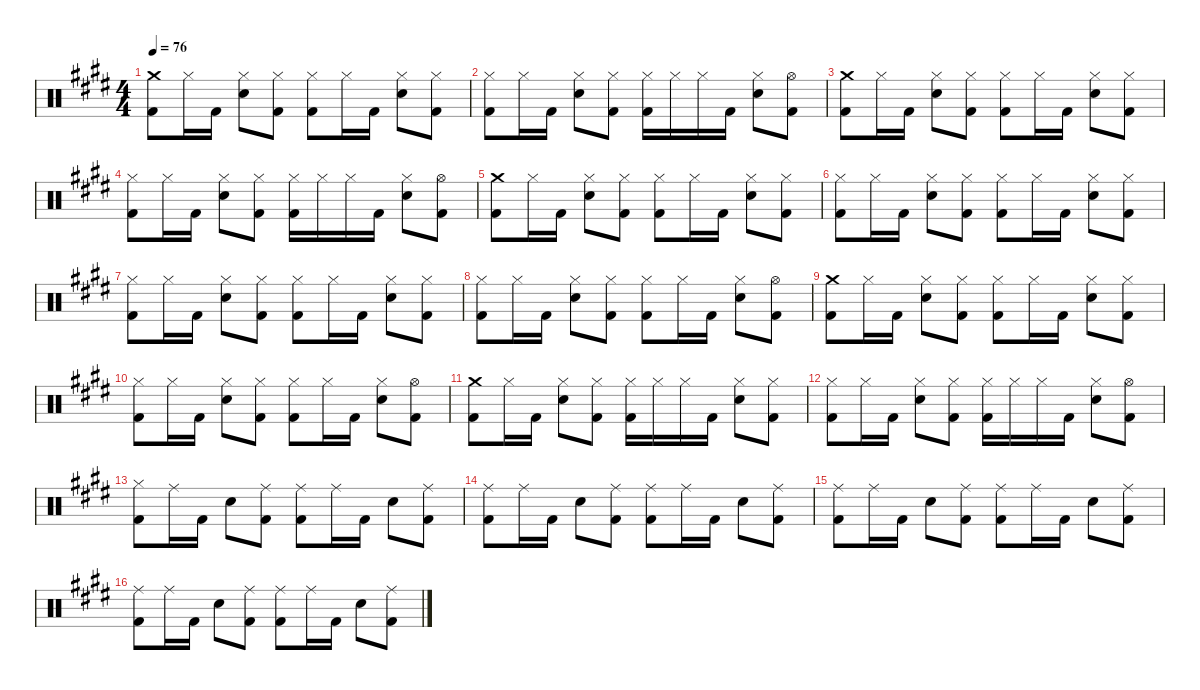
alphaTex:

\defaultSystemsLayout 4
\hideDynamics
\bracketExtendMode nobrackets
\singleTrackTrackNamePolicy hidden
\multiTrackTrackNamePolicy hidden
\firstSystemTrackNameMode fullname
\otherSystemsTrackNameOrientation horizontal
\track ("Drums" "drm.") {instrument percussion}
\staff {score}
\articulation defaults
\ts (4 4)
\tempo 76
\clef neutral
\ks e
("Crash medium (hit)"{acc forcenatural} "Kick (hit) 2"{acc forcenatural}).8{dy f beam Down} "Hi-Hat (closed)"{acc forcenatural}.16{beam Down} "Kick (hit) 2"{acc forcenatural}.16{beam Down} ("Hi-Hat (closed)"{acc forcenatural} "Snare (hit) 2"{acc forcenatural}).8{dy mf beam Down} ("Hi-Hat (closed)"{acc forcenatural} "Kick (hit) 2"{acc forcenatural}).8{dy f beam Down} ("Hi-Hat (closed)"{acc forcenatural} "Kick (hit) 2"{acc forcenatural}).8{beam Down} "Hi-Hat (closed)"{acc forcenatural}.16{beam Down} "Kick (hit) 2"{acc forcenatural}.16{beam Down} ("Hi-Hat (closed)"{acc forcenatural} "Snare (hit) 2"{acc forcenatural}).8{dy mf beam Down} ("Hi-Hat (closed)"{acc forcenatural} "Kick (hit) 2"{acc forcenatural}).8{dy f beam Down} |
("Hi-Hat (closed)"{acc forcenatural} "Kick (hit) 2"{acc forcenatural}).8{beam Down} "Hi-Hat (closed)"{acc forcenatural}.16{beam Down} "Kick (hit) 2"{acc forcenatural}.16{beam Down} ("Hi-Hat (closed)"{acc forcenatural} "Snare (hit) 2"{acc forcenatural}).8{dy mf beam Down} ("Hi-Hat (closed)"{acc forcenatural} "Kick (hit) 2"{acc forcenatural}).8{dy f beam Down} ("Hi-Hat (closed)"{acc forcenatural} "Kick (hit) 2"{acc forcenatural}).16{beam Down} "Hi-Hat (closed)"{acc forcenatural}.16{dy mf beam Down} "Hi-Hat (closed)"{acc forcenatural}.16{dy f beam Down} "Kick (hit) 2"{acc forcenatural}.16{beam Down} ("Hi-Hat (closed)"{acc forcenatural} "Snare (hit) 2"{acc forcenatural}).8{dy mf beam Down} ("Hi-Hat (open)"{acc forcenatural} "Kick (hit) 2"{acc forcenatural}).8{dy f beam Down} |
("Crash medium (hit)"{acc forcenatural} "Kick (hit) 2"{acc forcenatural}).8{beam Down} "Hi-Hat (closed)"{acc forcenatural}.16{beam Down} "Kick (hit) 2"{acc forcenatural}.16{beam Down} ("Hi-Hat (closed)"{acc forcenatural} "Snare (hit) 2"{acc forcenatural}).8{dy mf beam Down} ("Hi-Hat (closed)"{acc forcenatural} "Kick (hit) 2"{acc forcenatural}).8{dy f beam Down} ("Hi-Hat (closed)"{acc forcenatural} "Kick (hit) 2"{acc forcenatural}).8{beam Down} "Hi-Hat (closed)"{acc forcenatural}.16{beam Down} "Kick (hit) 2"{acc forcenatural}.16{beam Down} ("Hi-Hat (closed)"{acc forcenatural} "Snare (hit) 2"{acc forcenatural}).8{dy mf beam Down} ("Hi-Hat (closed)"{acc forcenatural} "Kick (hit) 2"{acc forcenatural}).8{dy f beam Down} |
("Hi-Hat (closed)"{acc forcenatural} "Kick (hit) 2"{acc forcenatural}).8{beam Down} "Hi-Hat (closed)"{acc forcenatural}.16{beam Down} "Kick (hit) 2"{acc forcenatural}.16{beam Down} ("Hi-Hat (closed)"{acc forcenatural} "Snare (hit) 2"{acc forcenatural}).8{dy mf beam Down} ("Hi-Hat (closed)"{acc forcenatural} "Kick (hit) 2"{acc forcenatural}).8{dy f beam Down} ("Hi-Hat (closed)"{acc forcenatural} "Kick (hit) 2"{acc forcenatural}).16{beam Down} "Hi-Hat (closed)"{acc forcenatural}.16{dy mf beam Down} "Hi-Hat (closed)"{acc forcenatural}.16{dy f beam Down} "Kick (hit) 2"{acc forcenatural}.16{beam Down} ("Hi-Hat (closed)"{acc forcenatural} "Snare (hit) 2"{acc forcenatural}).8{dy mf beam Down} ("Hi-Hat (open)"{acc forcenatural} "Kick (hit) 2"{acc forcenatural}).8{dy f beam Down} |
("Crash medium (hit)"{acc forcenatural} "Kick (hit) 2"{acc forcenatural}).8{beam Down} "Hi-Hat (closed)"{acc forcenatural}.16{beam Down} "Kick (hit) 2"{acc forcenatural}.16{beam Down} ("Hi-Hat (closed)"{acc forcenatural} "Snare (hit) 2"{acc forcenatural}).8{dy mf beam Down} ("Hi-Hat (closed)"{acc forcenatural} "Kick (hit) 2"{acc forcenatural}).8{dy f beam Down} ("Hi-Hat (closed)"{acc forcenatural} "Kick (hit) 2"{acc forcenatural}).8{beam Down} "Hi-Hat (closed)"{acc forcenatural}.16{beam Down} "Kick (hit) 2"{acc forcenatural}.16{beam Down} ("Hi-Hat (closed)"{acc forcenatural} "Snare (hit) 2"{acc forcenatural}).8{dy mf beam Down} ("Hi-Hat (closed)"{acc forcenatural} "Kick (hit) 2"{acc forcenatural}).8{dy f beam Down} |
("Hi-Hat (closed)"{acc forcenatural} "Kick (hit) 2"{acc forcenatural}).8{beam Down} "Hi-Hat (closed)"{acc forcenatural}.16{beam Down} "Kick (hit) 2"{acc forcenatural}.16{beam Down} ("Hi-Hat (closed)"{acc forcenatural} "Snare (hit) 2"{acc forcenatural}).8{dy mf beam Down} ("Hi-Hat (closed)"{acc forcenatural} "Kick (hit) 2"{acc forcenatural}).8{dy f beam Down} ("Hi-Hat (closed)"{acc forcenatural} "Kick (hit) 2"{acc forcenatural}).8{beam Down} "Hi-Hat (closed)"{acc forcenatural}.16{beam Down} "Kick (hit) 2"{acc forcenatural}.16{beam Down} ("Hi-Hat (closed)"{acc forcenatural} "Snare (hit) 2"{acc forcenatural}).8{dy mf beam Down} ("Hi-Hat (closed)"{acc forcenatural} "Kick (hit) 2"{acc forcenatural}).8{dy f beam Down} |
("Hi-Hat (closed)"{acc forcenatural} "Kick (hit) 2"{acc forcenatural}).8{beam Down} "Hi-Hat (closed)"{acc forcenatural}.16{beam Down} "Kick (hit) 2"{acc forcenatural}.16{beam Down} ("Hi-Hat (closed)"{acc forcenatural} "Snare (hit) 2"{acc forcenatural}).8{dy mf beam Down} ("Hi-Hat (closed)"{acc forcenatural} "Kick (hit) 2"{acc forcenatural}).8{dy f beam Down} ("Hi-Hat (closed)"{acc forcenatural} "Kick (hit) 2"{acc forcenatural}).8{beam Down} "Hi-Hat (closed)"{acc forcenatural}.16{beam Down} "Kick (hit) 2"{acc forcenatural}.16{beam Down} ("Hi-Hat (closed)"{acc forcenatural} "Snare (hit) 2"{acc forcenatural}).8{dy mf beam Down} ("Hi-Hat (closed)"{acc forcenatural} "Kick (hit) 2"{acc forcenatural}).8{dy f beam Down} |
("Hi-Hat (closed)"{acc forcenatural} "Kick (hit) 2"{acc forcenatural}).8{beam Down} "Hi-Hat (closed)"{acc forcenatural}.16{beam Down} "Kick (hit) 2"{acc forcenatural}.16{beam Down} ("Hi-Hat (closed)"{acc forcenatural} "Snare (hit) 2"{acc forcenatural}).8{dy mf beam Down} ("Hi-Hat (closed)"{acc forcenatural} "Kick (hit) 2"{acc forcenatural}).8{dy f beam Down} ("Hi-Hat (closed)"{acc forcenatural} "Kick (hit) 2"{acc forcenatural}).8{beam Down} "Hi-Hat (closed)"{acc forcenatural}.16{beam Down} "Kick (hit) 2"{acc forcenatural}.16{beam Down} ("Hi-Hat (closed)"{acc forcenatural} "Snare (hit) 2"{acc forcenatural}).8{dy mf beam Down} ("Hi-Hat (open)"{acc forcenatural} "Kick (hit) 2"{acc forcenatural}).8{dy f beam Down} |
("Crash medium (hit)"{acc forcenatural} "Kick (hit) 2"{acc forcenatural}).8{beam Down} "Hi-Hat (closed)"{acc forcenatural}.16{beam Down} "Kick (hit) 2"{acc forcenatural}.16{beam Down} ("Hi-Hat (closed)"{acc forcenatural} "Snare (hit) 2"{acc forcenatural}).8{dy mf beam Down} ("Hi-Hat (closed)"{acc forcenatural} "Kick (hit) 2"{acc forcenatural}).8{dy f beam Down} ("Hi-Hat (closed)"{acc forcenatural} "Kick (hit) 2"{acc forcenatural}).8{beam Down} "Hi-Hat (closed)"{acc forcenatural}.16{beam Down} "Kick (hit) 2"{acc forcenatural}.16{beam Down} ("Hi-Hat (closed)"{acc forcenatural} "Snare (hit) 2"{acc forcenatural}).8{dy mf beam Down} ("Hi-Hat (closed)"{acc forcenatural} "Kick (hit) 2"{acc forcenatural}).8{dy f beam Down} |
("Hi-Hat (closed)"{acc forcenatural} "Kick (hit) 2"{acc forcenatural}).8{beam Down} "Hi-Hat (closed)"{acc forcenatural}.16{beam Down} "Kick (hit) 2"{acc forcenatural}.16{beam Down} ("Hi-Hat (closed)"{acc forcenatural} "Snare (hit) 2"{acc forcenatural}).8{dy mf beam Down} ("Hi-Hat (closed)"{acc forcenatural} "Kick (hit) 2"{acc forcenatural}).8{dy f beam Down} ("Hi-Hat (closed)"{acc forcenatural} "Kick (hit) 2"{acc forcenatural}).8{beam Down} "Hi-Hat (closed)"{acc forcenatural}.16{beam Down} "Kick (hit) 2"{acc forcenatural}.16{beam Down} ("Hi-Hat (closed)"{acc forcenatural} "Snare (hit) 2"{acc forcenatural}).8{dy mf beam Down} ("Hi-Hat (open)"{acc forcenatural} "Kick (hit) 2"{acc forcenatural}).8{dy f beam Down} |
("Crash medium (hit)"{acc forcenatural} "Kick (hit) 2"{acc forcenatural}).8{beam Down} "Hi-Hat (closed)"{acc forcenatural}.16{beam Down} "Kick (hit) 2"{acc forcenatural}.16{beam Down} ("Hi-Hat (closed)"{acc forcenatural} "Snare (hit) 2"{acc forcenatural}).8{dy mf beam Down} ("Hi-Hat (closed)"{acc forcenatural} "Kick (hit) 2"{acc forcenatural}).8{dy f beam Down} ("Hi-Hat (closed)"{acc forcenatural} "Kick (hit) 2"{acc forcenatural}).16{beam Down} "Hi-Hat (closed)"{acc forcenatural}.16{dy mf beam Down} "Hi-Hat (closed)"{acc forcenatural}.16{dy f beam Down} "Kick (hit) 2"{acc forcenatural}.16{beam Down} ("Hi-Hat (closed)"{acc forcenatural} "Snare (hit) 2"{acc forcenatural}).8{dy mf beam Down} ("Hi-Hat (closed)"{acc forcenatural} "Kick (hit) 2"{acc forcenatural}).8{dy f beam Down} |
("Hi-Hat (closed)"{acc forcenatural} "Kick (hit) 2"{acc forcenatural}).8{beam Down} "Hi-Hat (closed)"{acc forcenatural}.16{beam Down} "Kick (hit) 2"{acc forcenatural}.16{beam Down} ("Hi-Hat (closed)"{acc forcenatural} "Snare (hit) 2"{acc forcenatural}).8{dy mf beam Down} ("Hi-Hat (closed)"{acc forcenatural} "Kick (hit) 2"{acc forcenatural}).8{dy f beam Down} ("Hi-Hat (closed)"{acc forcenatural} "Kick (hit) 2"{acc forcenatural}).16{beam Down} "Hi-Hat (closed)"{acc forcenatural}.16{beam Down} "Hi-Hat (closed)"{acc forcenatural}.16{beam Down} "Kick (hit) 2"{acc forcenatural}.16{beam Down} ("Hi-Hat (closed)"{acc forcenatural} "Snare (hit) 2"{acc forcenatural}).8{dy mf beam Down} ("Hi-Hat (open)"{acc forcenatural} "Kick (hit) 2"{acc forcenatural}).8{dy f beam Down} |
("Hi-Hat (closed)"{acc forcenatural} "Kick (hit) 2"{acc forcenatural}).8{beam Down} "Ride (middle)"{acc forcenatural}.16{beam Down} "Kick (hit) 2"{acc forcenatural}.16{beam Down} "Snare (hit) 2"{acc forcenatural}.8{beam Down} ("Ride (middle)"{acc forcenatural} "Kick (hit) 2"{acc forcenatural}).8{beam Down} ("Ride (middle)"{acc forcenatural} "Kick (hit) 2"{acc forcenatural}).8{beam Down} "Ride (middle)"{acc forcenatural}.16{beam Down} "Kick (hit) 2"{acc forcenatural}.16{beam Down} "Snare (hit) 2"{acc forcenatural}.8{beam Down} ("Ride (middle)"{acc forcenatural} "Kick (hit) 2"{acc forcenatural}).8{beam Down} |
("Ride (middle)"{acc forcenatural} "Kick (hit) 2"{acc forcenatural}).8{beam Down} "Ride (middle)"{acc forcenatural}.16{beam Down} "Kick (hit) 2"{acc forcenatural}.16{beam Down} "Snare (hit) 2"{acc forcenatural}.8{beam Down} ("Ride (middle)"{acc forcenatural} "Kick (hit) 2"{acc forcenatural}).8{beam Down} ("Ride (middle)"{acc forcenatural} "Kick (hit) 2"{acc forcenatural}).8{beam Down} "Ride (middle)"{acc forcenatural}.16{beam Down} "Kick (hit) 2"{acc forcenatural}.16{beam Down} "Snare (hit) 2"{acc forcenatural}.8{beam Down} ("Ride (middle)"{acc forcenatural} "Kick (hit) 2"{acc forcenatural}).8{beam Down} |
("Ride (middle)"{acc forcenatural} "Kick (hit) 2"{acc forcenatural}).8{beam Down} "Ride (middle)"{acc forcenatural}.16{beam Down} "Kick (hit) 2"{acc forcenatural}.16{beam Down} "Snare (hit) 2"{acc forcenatural}.8{beam Down} ("Ride (middle)"{acc forcenatural} "Kick (hit) 2"{acc forcenatural}).8{beam Down} ("Ride (middle)"{acc forcenatural} "Kick (hit) 2"{acc forcenatural}).8{beam Down} "Ride (middle)"{acc forcenatural}.16{beam Down} "Kick (hit) 2"{acc forcenatural}.16{beam Down} "Snare (hit) 2"{acc forcenatural}.8{beam Down} ("Ride (middle)"{acc forcenatural} "Kick (hit) 2"{acc forcenatural}).8{beam Down} |
("Ride (middle)"{acc forcenatural} "Kick (hit) 2"{acc forcenatural}).8{beam Down} "Ride (middle)"{acc forcenatural}.16{beam Down} "Kick (hit) 2"{acc forcenatural}.16{beam Down} "Snare (hit) 2"{acc forcenatural}.8{beam Down} ("Ride (middle)"{acc forcenatural} "Kick (hit) 2"{acc forcenatural}).8{beam Down} ("Ride (middle)"{acc forcenatural} "Kick (hit) 2"{acc forcenatural}).8{beam Down} "Ride (middle)"{acc forcenatural}.16{beam Down} "Kick (hit) 2"{acc forcenatural}.16{beam Down} "Snare (hit) 2"{acc forcenatural}.8{beam Down} ("Ride (middle)"{acc forcenatural} "Kick (hit) 2"{acc forcenatural}).8{beam Down}
